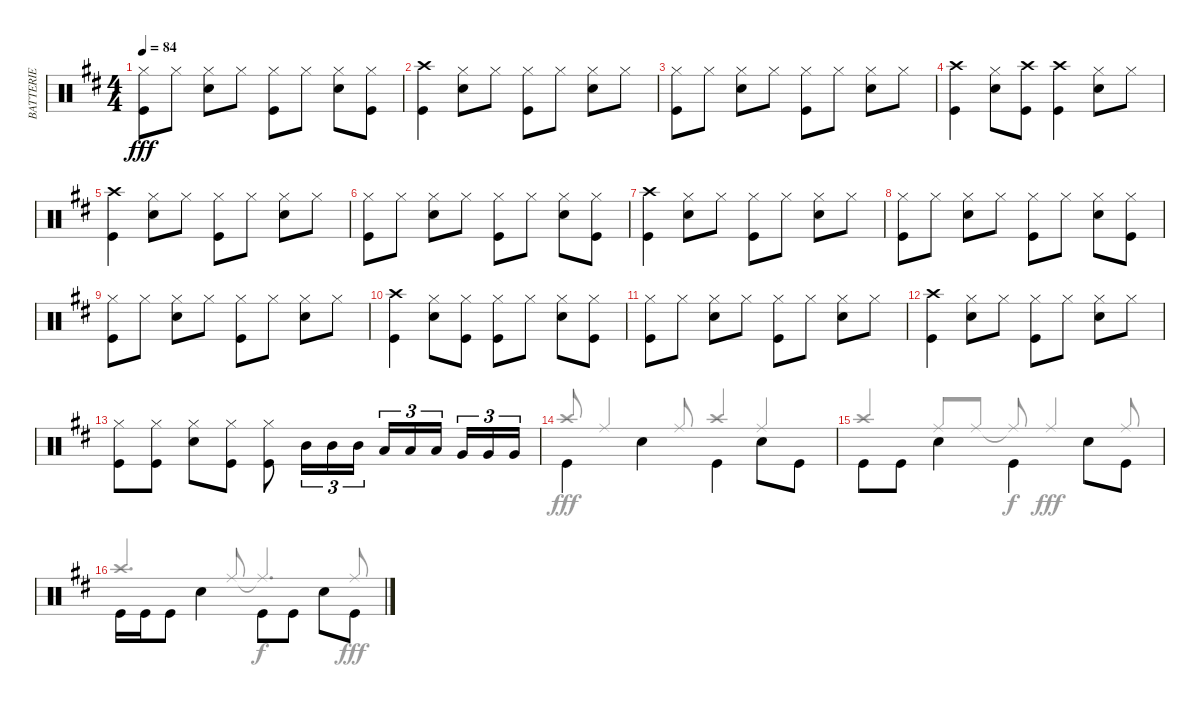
\track ("BATTERIE" "BATTERIE") {instrument percussion}
\staff {score}
\articulation defaults
\voice
\ts (4 4)
\tempo 84
\clef neutral
\ks d
("Hi-Hat (closed)" "Kick (hit)").8{dy fff} "Hi-Hat (closed)".8 ("Hi-Hat (closed)" "Snare (hit) 2").8 "Hi-Hat (closed)".8 ("Hi-Hat (closed)" "Kick (hit)").8 "Hi-Hat (closed)".8 ("Hi-Hat (closed)" "Snare (hit) 2").8 ("Hi-Hat (closed)" "Kick (hit)").8 |
("Crash high (hit)" "Kick (hit)").4 ("Hi-Hat (closed)" "Snare (hit) 2").8 "Hi-Hat (closed)".8 ("Hi-Hat (closed)" "Kick (hit)").8 "Hi-Hat (closed)".8 ("Hi-Hat (closed)" "Snare (hit) 2").8 "Hi-Hat (closed)".8 |
("Hi-Hat (closed)" "Kick (hit)").8 "Hi-Hat (closed)".8 ("Hi-Hat (closed)" "Snare (hit) 2").8 "Hi-Hat (closed)".8 ("Hi-Hat (closed)" "Kick (hit)").8 "Hi-Hat (closed)".8 ("Hi-Hat (closed)" "Snare (hit) 2").8 "Hi-Hat (closed)".8 |
("Crash high (hit)" "Kick (hit)").4 ("Hi-Hat (closed)" "Snare (hit) 2").8 ("Crash high (hit)" "Kick (hit)").8 ("Crash high (hit)" "Kick (hit)").4 ("Hi-Hat (closed)" "Snare (hit) 2").8 "Hi-Hat (closed)".8 |
("Crash high (hit)" "Kick (hit)").4 ("Hi-Hat (closed)" "Snare (hit) 2").8 "Hi-Hat (closed)".8 ("Hi-Hat (closed)" "Kick (hit)").8 "Hi-Hat (closed)".8 ("Hi-Hat (closed)" "Snare (hit) 2").8 "Hi-Hat (closed)".8 |
("Hi-Hat (closed)" "Kick (hit)").8 "Hi-Hat (closed)".8 ("Hi-Hat (closed)" "Snare (hit) 2").8 "Hi-Hat (closed)".8 ("Hi-Hat (closed)" "Kick (hit)").8 "Hi-Hat (closed)".8 ("Hi-Hat (closed)" "Snare (hit) 2").8 ("Hi-Hat (closed)" "Kick (hit)").8 |
("Crash high (hit)" "Kick (hit)").4 ("Hi-Hat (closed)" "Snare (hit) 2").8 "Hi-Hat (closed)".8 ("Hi-Hat (closed)" "Kick (hit)").8 "Hi-Hat (closed)".8 ("Hi-Hat (closed)" "Snare (hit) 2").8 "Hi-Hat (closed)".8 |
("Hi-Hat (closed)" "Kick (hit)").8 "Hi-Hat (closed)".8 ("Hi-Hat (closed)" "Snare (hit) 2").8 "Hi-Hat (closed)".8 ("Hi-Hat (closed)" "Kick (hit)").8 "Hi-Hat (closed)".8 ("Hi-Hat (closed)" "Snare (hit) 2").8 ("Hi-Hat (closed)" "Kick (hit)").8 |
("Hi-Hat (closed)" "Kick (hit)").8 "Hi-Hat (closed)".8 ("Hi-Hat (closed)" "Snare (hit) 2").8 "Hi-Hat (closed)".8 ("Hi-Hat (closed)" "Kick (hit)").8 "Hi-Hat (closed)".8 ("Hi-Hat (closed)" "Snare (hit) 2").8 "Hi-Hat (closed)".8 |
("Crash high (hit)" "Kick (hit)").4 ("Hi-Hat (closed)" "Snare (hit) 2").8 ("Hi-Hat (closed)" "Kick (hit)").8 ("Hi-Hat (closed)" "Kick (hit)").8 "Hi-Hat (closed)".8 ("Hi-Hat (closed)" "Snare (hit) 2").8 ("Hi-Hat (closed)" "Kick (hit)").8 |
("Hi-Hat (closed)" "Kick (hit)").8 "Hi-Hat (closed)".8 ("Hi-Hat (closed)" "Snare (hit) 2").8 "Hi-Hat (closed)".8 ("Hi-Hat (closed)" "Kick (hit)").8 "Hi-Hat (closed)".8 ("Hi-Hat (closed)" "Snare (hit) 2").8 "Hi-Hat (closed)".8 |
("Crash high (hit)" "Kick (hit)").4 ("Hi-Hat (closed)" "Snare (hit) 2").8 "Hi-Hat (closed)".8 ("Hi-Hat (closed)" "Kick (hit)").8 "Hi-Hat (closed)".8 ("Hi-Hat (closed)" "Snare (hit) 2").8 "Hi-Hat (closed)".8 |
("Hi-Hat (closed)" "Kick (hit)").8 ("Hi-Hat (closed)" "Kick (hit)").8 ("Hi-Hat (closed)" "Snare (hit) 2").8 ("Hi-Hat (closed)" "Kick (hit)").8 ("Hi-Hat (closed)" "Kick (hit)").8 "Mid Tom (hit)".16{tu (3 2)} "Mid Tom (hit)".16{tu (3 2)} "Mid Tom (hit)".16{tu (3 2)} "Low Tom (hit)".16{tu (3 2)} "Low Tom (hit)".16{tu (3 2)} "Low Tom (hit)".16{tu (3 2) beam splitsecondary} "Very Low Tom (hit)".16{tu (3 2)} "Very Low Tom (hit)".16{tu (3 2)} "Very Low Tom (hit)".16{tu (3 2)} |
"Kick (hit)".4{beam Down} "Snare (hit) 2".4{beam Down} "Kick (hit)".4{beam Down} "Snare (hit) 2".8{beam Down} "Kick (hit)".8{beam Down} |
"Kick (hit)".8{beam Down} "Kick (hit)".8{beam Down} "Snare (hit) 2".4{beam Down} "Kick (hit)".4{beam Down} "Snare (hit) 2".8{beam Down} "Kick (hit)".8{beam Down} |
"Kick (hit)".16{beam Down} "Kick (hit)".16{beam Down} "Kick (hit)".8{beam Down} "Snare (hit) 2".4{beam Down} "Kick (hit)".8{beam Down} "Kick (hit)".8{beam Down} "Snare (hit) 2".8{beam Down} "Kick (hit)".8{beam Down}
\voice
\clef neutral
\ottava regular
\simile none
\ks d
|
|
|
|
|
|
|
|
|
|
|
|
|
"Crash high (hit)".8{beam Up} "Ride (middle)".4{beam Up} "Ride (middle)".8{beam Up} "Crash high (hit)".4{beam Up} "Ride (middle)".4{beam Up} |
"Crash high (hit)".4{beam Up} "Ride (middle)".8{beam Up} "Ride (middle)".8{beam Up} "Ride (middle)"{t}.8{dy f beam Up} "Ride (middle)".4{dy fff beam Up} "Ride (middle)".8{beam Up} |
"Crash high (hit)".4{d beam Up} "Ride (middle)".8{beam Up} "Ride (middle)"{t}.4{d dy f beam Up} "Ride (middle)".8{dy fff beam Up}
